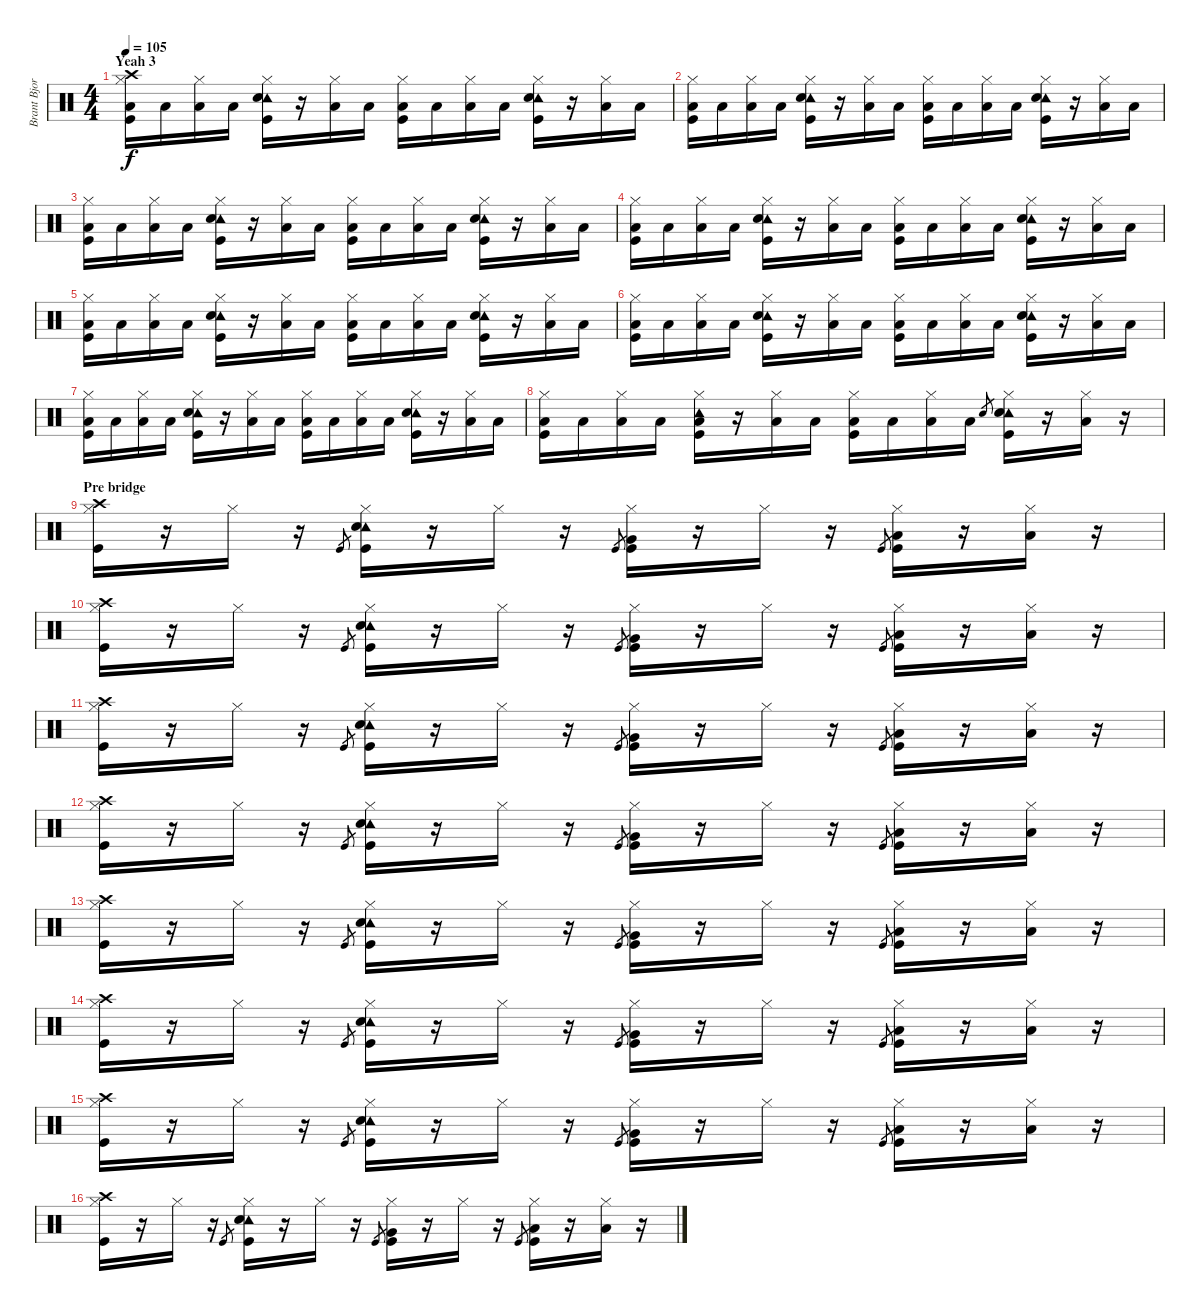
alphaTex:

\track ("Brant Bjork - Drums" "Brant Bjor") {instrument percussion}
\staff {score}
\articulation defaults
\ts (4 4)
\section ("" "Yeah 3")
\tempo 105
\clef neutral
\ks c
("Crash high (hit)" "Hi-Hat (closed)" "Low Floor Tom (hit)" "Kick (hit)").16{dy f} "Low Floor Tom (hit)".16 ("Hi-Hat (closed)" "Low Floor Tom (hit)").16 "Low Floor Tom (hit)".16 ("Tambourine (hit)" "Hi-Hat (closed)" "Snare (hit) 2" "Kick (hit)").16 r.16 ("Hi-Hat (closed)" "Low Floor Tom (hit)").16 "Low Floor Tom (hit)".16 ("Hi-Hat (closed)" "Low Floor Tom (hit)" "Kick (hit)").16 "Low Floor Tom (hit)".16 ("Hi-Hat (closed)" "Low Floor Tom (hit)").16 "Low Floor Tom (hit)".16 ("Tambourine (hit)" "Hi-Hat (closed)" "Snare (hit) 2" "Kick (hit)").16 r.16 ("Hi-Hat (closed)" "Low Floor Tom (hit)").16 "Low Floor Tom (hit)".16 |
("Hi-Hat (closed)" "Low Floor Tom (hit)" "Kick (hit)").16 "Low Floor Tom (hit)".16 ("Hi-Hat (closed)" "Low Floor Tom (hit)").16 "Low Floor Tom (hit)".16 ("Tambourine (hit)" "Hi-Hat (closed)" "Snare (hit) 2" "Kick (hit)").16 r.16 ("Hi-Hat (closed)" "Low Floor Tom (hit)").16 "Low Floor Tom (hit)".16 ("Hi-Hat (closed)" "Low Floor Tom (hit)" "Kick (hit)").16 "Low Floor Tom (hit)".16 ("Hi-Hat (closed)" "Low Floor Tom (hit)").16 "Low Floor Tom (hit)".16 ("Tambourine (hit)" "Hi-Hat (closed)" "Snare (hit) 2" "Kick (hit)").16 r.16 ("Hi-Hat (closed)" "Low Floor Tom (hit)").16 "Low Floor Tom (hit)".16 |
("Hi-Hat (closed)" "Low Floor Tom (hit)" "Kick (hit)").16 "Low Floor Tom (hit)".16 ("Hi-Hat (closed)" "Low Floor Tom (hit)").16 "Low Floor Tom (hit)".16 ("Tambourine (hit)" "Hi-Hat (closed)" "Snare (hit) 2" "Kick (hit)").16 r.16 ("Hi-Hat (closed)" "Low Floor Tom (hit)").16 "Low Floor Tom (hit)".16 ("Hi-Hat (closed)" "Low Floor Tom (hit)" "Kick (hit)").16 "Low Floor Tom (hit)".16 ("Hi-Hat (closed)" "Low Floor Tom (hit)").16 "Low Floor Tom (hit)".16 ("Tambourine (hit)" "Hi-Hat (closed)" "Snare (hit) 2" "Kick (hit)").16 r.16 ("Hi-Hat (closed)" "Low Floor Tom (hit)").16 "Low Floor Tom (hit)".16 |
("Hi-Hat (closed)" "Low Floor Tom (hit)" "Kick (hit)").16 "Low Floor Tom (hit)".16 ("Hi-Hat (closed)" "Low Floor Tom (hit)").16 "Low Floor Tom (hit)".16 ("Tambourine (hit)" "Hi-Hat (closed)" "Snare (hit) 2" "Kick (hit)").16 r.16 ("Hi-Hat (closed)" "Low Floor Tom (hit)").16 "Low Floor Tom (hit)".16 ("Hi-Hat (closed)" "Low Floor Tom (hit)" "Kick (hit)").16 "Low Floor Tom (hit)".16 ("Hi-Hat (closed)" "Low Floor Tom (hit)").16 "Low Floor Tom (hit)".16 ("Tambourine (hit)" "Hi-Hat (closed)" "Snare (hit) 2" "Kick (hit)").16 r.16 ("Hi-Hat (closed)" "Low Floor Tom (hit)").16 "Low Floor Tom (hit)".16 |
("Hi-Hat (closed)" "Low Floor Tom (hit)" "Kick (hit)").16 "Low Floor Tom (hit)".16 ("Hi-Hat (closed)" "Low Floor Tom (hit)").16 "Low Floor Tom (hit)".16 ("Tambourine (hit)" "Hi-Hat (closed)" "Snare (hit) 2" "Kick (hit)").16 r.16 ("Hi-Hat (closed)" "Low Floor Tom (hit)").16 "Low Floor Tom (hit)".16 ("Hi-Hat (closed)" "Low Floor Tom (hit)" "Kick (hit)").16 "Low Floor Tom (hit)".16 ("Hi-Hat (closed)" "Low Floor Tom (hit)").16 "Low Floor Tom (hit)".16 ("Tambourine (hit)" "Hi-Hat (closed)" "Snare (hit) 2" "Kick (hit)").16 r.16 ("Hi-Hat (closed)" "Low Floor Tom (hit)").16 "Low Floor Tom (hit)".16 |
("Hi-Hat (closed)" "Low Floor Tom (hit)" "Kick (hit)").16 "Low Floor Tom (hit)".16 ("Hi-Hat (closed)" "Low Floor Tom (hit)").16 "Low Floor Tom (hit)".16 ("Tambourine (hit)" "Hi-Hat (closed)" "Snare (hit) 2" "Kick (hit)").16 r.16 ("Hi-Hat (closed)" "Low Floor Tom (hit)").16 "Low Floor Tom (hit)".16 ("Hi-Hat (closed)" "Low Floor Tom (hit)" "Kick (hit)").16 "Low Floor Tom (hit)".16 ("Hi-Hat (closed)" "Low Floor Tom (hit)").16 "Low Floor Tom (hit)".16 ("Tambourine (hit)" "Hi-Hat (closed)" "Snare (hit) 2" "Kick (hit)").16 r.16 ("Hi-Hat (closed)" "Low Floor Tom (hit)").16 "Low Floor Tom (hit)".16 |
("Hi-Hat (closed)" "Low Floor Tom (hit)" "Kick (hit)").16 "Low Floor Tom (hit)".16 ("Hi-Hat (closed)" "Low Floor Tom (hit)").16 "Low Floor Tom (hit)".16 ("Tambourine (hit)" "Hi-Hat (closed)" "Snare (hit) 2" "Kick (hit)").16 r.16 ("Hi-Hat (closed)" "Low Floor Tom (hit)").16 "Low Floor Tom (hit)".16 ("Hi-Hat (closed)" "Low Floor Tom (hit)" "Kick (hit)").16 "Low Floor Tom (hit)".16 ("Hi-Hat (closed)" "Low Floor Tom (hit)").16 "Low Floor Tom (hit)".16 ("Tambourine (hit)" "Hi-Hat (closed)" "Snare (hit) 2" "Kick (hit)").16 r.16 ("Hi-Hat (closed)" "Low Floor Tom (hit)").16 "Low Floor Tom (hit)".16 |
("Hi-Hat (closed)" "Low Floor Tom (hit)" "Kick (hit)").16 "Low Floor Tom (hit)".16 ("Hi-Hat (closed)" "Low Floor Tom (hit)").16 "Low Floor Tom (hit)".16 ("Tambourine (hit)" "Hi-Hat (closed)" "Low Floor Tom (hit)" "Kick (hit)").16 r.16 ("Hi-Hat (closed)" "Low Floor Tom (hit)").16 "Low Floor Tom (hit)".16 ("Hi-Hat (closed)" "Low Floor Tom (hit)" "Kick (hit)").16 "Low Floor Tom (hit)".16 ("Hi-Hat (closed)" "Low Floor Tom (hit)").16 "Low Floor Tom (hit)".16 "Snare (hit) 2".8{gr} ("Tambourine (hit)" "Hi-Hat (closed)" "Snare (hit) 2" "Kick (hit)").16 r.16 ("Hi-Hat (closed)" "Low Floor Tom (hit)").16 r.16 |
\section ("" "Pre bridge")
("Crash high (hit)" "Hi-Hat (closed)" "Kick (hit)").16 r.16 "Hi-Hat (closed)".16 r.16 "Kick (hit)".8{gr} ("Tambourine (hit)" "Hi-Hat (closed)" "Snare (hit) 2" "Kick (hit)").16 r.16 "Hi-Hat (closed)".16 r.16 "Kick (hit)".8{gr} ("Hi-Hat (closed)" "Very Low Tom (hit)" "Kick (hit)").16 r.16 "Hi-Hat (closed)".16 r.16 "Kick (hit)".8{gr} ("Hi-Hat (closed)" "Low Floor Tom (hit)" "Kick (hit)").16 r.16 ("Hi-Hat (closed)" "Low Floor Tom (hit)").16 r.16 |
("Crash high (hit)" "Hi-Hat (closed)" "Kick (hit)").16 r.16 "Hi-Hat (closed)".16 r.16 "Kick (hit)".8{gr} ("Tambourine (hit)" "Hi-Hat (closed)" "Snare (hit) 2" "Kick (hit)").16 r.16 "Hi-Hat (closed)".16 r.16 "Kick (hit)".8{gr} ("Hi-Hat (closed)" "Very Low Tom (hit)" "Kick (hit)").16 r.16 "Hi-Hat (closed)".16 r.16 "Kick (hit)".8{gr} ("Hi-Hat (closed)" "Low Floor Tom (hit)" "Kick (hit)").16 r.16 ("Hi-Hat (closed)" "Low Floor Tom (hit)").16 r.16 |
("Crash high (hit)" "Hi-Hat (closed)" "Kick (hit)").16 r.16 "Hi-Hat (closed)".16 r.16 "Kick (hit)".8{gr} ("Tambourine (hit)" "Hi-Hat (closed)" "Snare (hit) 2" "Kick (hit)").16 r.16 "Hi-Hat (closed)".16 r.16 "Kick (hit)".8{gr} ("Hi-Hat (closed)" "Very Low Tom (hit)" "Kick (hit)").16 r.16 "Hi-Hat (closed)".16 r.16 "Kick (hit)".8{gr} ("Hi-Hat (closed)" "Low Floor Tom (hit)" "Kick (hit)").16 r.16 ("Hi-Hat (closed)" "Low Floor Tom (hit)").16 r.16 |
("Crash high (hit)" "Hi-Hat (closed)" "Kick (hit)").16 r.16 "Hi-Hat (closed)".16 r.16 "Kick (hit)".8{gr} ("Tambourine (hit)" "Hi-Hat (closed)" "Snare (hit) 2" "Kick (hit)").16 r.16 "Hi-Hat (closed)".16 r.16 "Kick (hit)".8{gr} ("Hi-Hat (closed)" "Very Low Tom (hit)" "Kick (hit)").16 r.16 "Hi-Hat (closed)".16 r.16 "Kick (hit)".8{gr} ("Hi-Hat (closed)" "Low Floor Tom (hit)" "Kick (hit)").16 r.16 ("Hi-Hat (closed)" "Low Floor Tom (hit)").16 r.16 |
("Crash high (hit)" "Hi-Hat (closed)" "Kick (hit)").16 r.16 "Hi-Hat (closed)".16 r.16 "Kick (hit)".8{gr} ("Tambourine (hit)" "Hi-Hat (closed)" "Snare (hit) 2" "Kick (hit)").16 r.16 "Hi-Hat (closed)".16 r.16 "Kick (hit)".8{gr} ("Hi-Hat (closed)" "Very Low Tom (hit)" "Kick (hit)").16 r.16 "Hi-Hat (closed)".16 r.16 "Kick (hit)".8{gr} ("Hi-Hat (closed)" "Low Floor Tom (hit)" "Kick (hit)").16 r.16 ("Hi-Hat (closed)" "Low Floor Tom (hit)").16 r.16 |
("Crash high (hit)" "Hi-Hat (closed)" "Kick (hit)").16 r.16 "Hi-Hat (closed)".16 r.16 "Kick (hit)".8{gr} ("Tambourine (hit)" "Hi-Hat (closed)" "Snare (hit) 2" "Kick (hit)").16 r.16 "Hi-Hat (closed)".16 r.16 "Kick (hit)".8{gr} ("Hi-Hat (closed)" "Very Low Tom (hit)" "Kick (hit)").16 r.16 "Hi-Hat (closed)".16 r.16 "Kick (hit)".8{gr} ("Hi-Hat (closed)" "Low Floor Tom (hit)" "Kick (hit)").16 r.16 ("Hi-Hat (closed)" "Low Floor Tom (hit)").16 r.16 |
("Crash high (hit)" "Hi-Hat (closed)" "Kick (hit)").16 r.16 "Hi-Hat (closed)".16 r.16 "Kick (hit)".8{gr} ("Tambourine (hit)" "Hi-Hat (closed)" "Snare (hit) 2" "Kick (hit)").16 r.16 "Hi-Hat (closed)".16 r.16 "Kick (hit)".8{gr} ("Hi-Hat (closed)" "Very Low Tom (hit)" "Kick (hit)").16 r.16 "Hi-Hat (closed)".16 r.16 "Kick (hit)".8{gr} ("Hi-Hat (closed)" "Low Floor Tom (hit)" "Kick (hit)").16 r.16 ("Hi-Hat (closed)" "Low Floor Tom (hit)").16 r.16 |
("Crash high (hit)" "Hi-Hat (closed)" "Kick (hit)").16 r.16 "Hi-Hat (closed)".16 r.16 "Kick (hit)".8{gr} ("Tambourine (hit)" "Hi-Hat (closed)" "Snare (hit) 2" "Kick (hit)").16 r.16 "Hi-Hat (closed)".16 r.16 "Kick (hit)".8{gr} ("Hi-Hat (closed)" "Very Low Tom (hit)" "Kick (hit)").16 r.16 "Hi-Hat (closed)".16 r.16 "Kick (hit)".8{gr} ("Hi-Hat (closed)" "Low Floor Tom (hit)" "Kick (hit)").16 r.16 ("Hi-Hat (closed)" "Low Floor Tom (hit)").16 r.16
